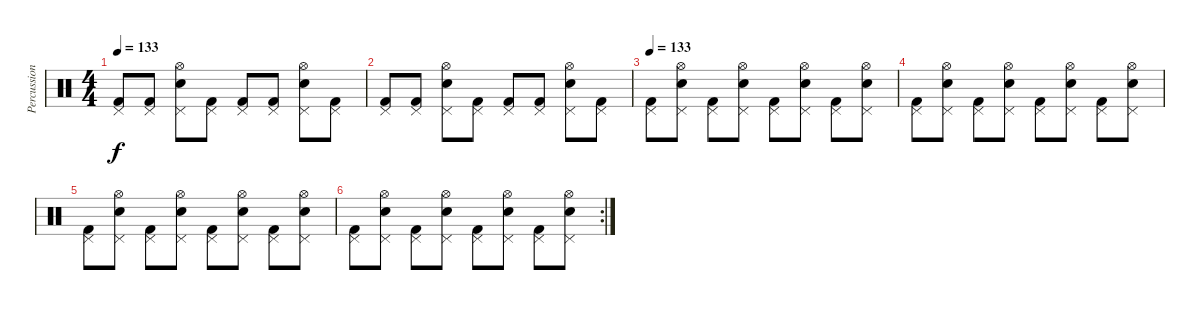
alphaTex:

\track ("Percussions" "Percussion") {instrument percussion}
\staff {score}
\articulation defaults
\ts (4 4)
\tempo 133
\clef neutral
\ks c
("Kick (hit) 2" "Pedal Hi-Hat (hit)").8{dy f} ("Kick (hit) 2" "Pedal Hi-Hat (hit)").8 ("Snare (hit) 2" "Pedal Hi-Hat (hit)" "Hi-Hat (open)").8 ("Kick (hit) 2" "Pedal Hi-Hat (hit)").8 ("Kick (hit) 2" "Pedal Hi-Hat (hit)").8 ("Kick (hit) 2" "Pedal Hi-Hat (hit)").8 ("Snare (hit) 2" "Pedal Hi-Hat (hit)" "Hi-Hat (open)").8 ("Kick (hit) 2" "Pedal Hi-Hat (hit)").8 |
("Kick (hit) 2" "Pedal Hi-Hat (hit)").8 ("Kick (hit) 2" "Pedal Hi-Hat (hit)").8 ("Snare (hit) 2" "Pedal Hi-Hat (hit)" "Hi-Hat (open)").8 ("Kick (hit) 2" "Pedal Hi-Hat (hit)").8 ("Kick (hit) 2" "Pedal Hi-Hat (hit)").8 ("Kick (hit) 2" "Pedal Hi-Hat (hit)").8 ("Snare (hit) 2" "Pedal Hi-Hat (hit)" "Hi-Hat (open)").8 ("Kick (hit) 2" "Pedal Hi-Hat (hit)").8 |
\tempo 133
("Kick (hit) 2" "Pedal Hi-Hat (hit)").8 ("Snare (hit) 2" "Pedal Hi-Hat (hit)" "Hi-Hat (open)").8 ("Kick (hit) 2" "Pedal Hi-Hat (hit)").8 ("Snare (hit) 2" "Pedal Hi-Hat (hit)" "Hi-Hat (open)").8 ("Kick (hit) 2" "Pedal Hi-Hat (hit)").8 ("Snare (hit) 2" "Pedal Hi-Hat (hit)" "Hi-Hat (open)").8 ("Kick (hit) 2" "Pedal Hi-Hat (hit)").8 ("Snare (hit) 2" "Pedal Hi-Hat (hit)" "Hi-Hat (open)").8 |
("Kick (hit) 2" "Pedal Hi-Hat (hit)").8 ("Snare (hit) 2" "Pedal Hi-Hat (hit)" "Hi-Hat (open)").8 ("Kick (hit) 2" "Pedal Hi-Hat (hit)").8 ("Snare (hit) 2" "Pedal Hi-Hat (hit)" "Hi-Hat (open)").8 ("Kick (hit) 2" "Pedal Hi-Hat (hit)").8 ("Snare (hit) 2" "Pedal Hi-Hat (hit)" "Hi-Hat (open)").8 ("Kick (hit) 2" "Pedal Hi-Hat (hit)").8 ("Snare (hit) 2" "Pedal Hi-Hat (hit)" "Hi-Hat (open)").8 |
("Kick (hit) 2" "Pedal Hi-Hat (hit)").8 ("Snare (hit) 2" "Pedal Hi-Hat (hit)" "Hi-Hat (open)").8 ("Kick (hit) 2" "Pedal Hi-Hat (hit)").8 ("Snare (hit) 2" "Pedal Hi-Hat (hit)" "Hi-Hat (open)").8 ("Kick (hit) 2" "Pedal Hi-Hat (hit)").8 ("Snare (hit) 2" "Pedal Hi-Hat (hit)" "Hi-Hat (open)").8 ("Kick (hit) 2" "Pedal Hi-Hat (hit)").8 ("Snare (hit) 2" "Pedal Hi-Hat (hit)" "Hi-Hat (open)").8 |
\rc 2
("Kick (hit) 2" "Pedal Hi-Hat (hit)").8 ("Snare (hit) 2" "Pedal Hi-Hat (hit)" "Hi-Hat (open)").8 ("Kick (hit) 2" "Pedal Hi-Hat (hit)").8 ("Snare (hit) 2" "Pedal Hi-Hat (hit)" "Hi-Hat (open)").8 ("Kick (hit) 2" "Pedal Hi-Hat (hit)").8 ("Snare (hit) 2" "Pedal Hi-Hat (hit)" "Hi-Hat (open)").8 ("Kick (hit) 2" "Pedal Hi-Hat (hit)").8 ("Snare (hit) 2" "Pedal Hi-Hat (hit)" "Hi-Hat (open)").8
